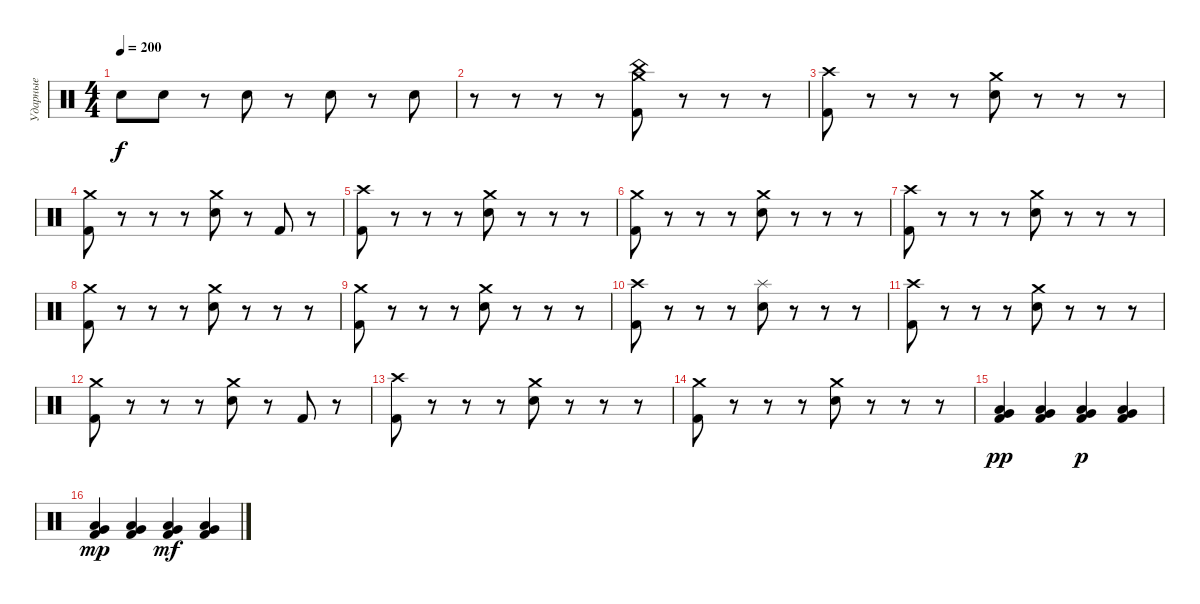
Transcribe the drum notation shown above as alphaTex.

\track ("Ударные" "Ударные") {instrument percussion}
\staff {score}
\articulation defaults
\ts (4 4)
\tempo 200
\clef neutral
\ks c "Electric Snare (hit)".8{dy f} "Electric Snare (hit)".8
r.8 "Electric Snare (hit)".8 r.8 "Electric Snare (hit)".8 r.8 "Electric Snare (hit)".8 |
r.8 r.8 r.8 r.8 ("Kick (hit) 2" "China (hit)" "Crash medium (hit)").8 r.8 r.8 r.8 |
("Kick (hit) 2" "Crash high (hit)").8 r.8 r.8 r.8 ("Electric Snare (hit)" "Crash medium (hit)").8 r.8 r.8 r.8 |
("Kick (hit) 2" "Crash medium (hit)").8 r.8 r.8 r.8 ("Electric Snare (hit)" "Crash medium (hit)").8 r.8 "Kick (hit) 2".8 r.8 |
("Kick (hit) 2" "Crash high (hit)").8 r.8 r.8 r.8 ("Electric Snare (hit)" "Crash medium (hit)").8 r.8 r.8 r.8 |
("Kick (hit) 2" "Crash medium (hit)").8 r.8 r.8 r.8 ("Electric Snare (hit)" "Crash medium (hit)").8 r.8 r.8 r.8 |
("Kick (hit) 2" "Crash high (hit)").8 r.8 r.8 r.8 ("Electric Snare (hit)" "Crash medium (hit)").8 r.8 r.8 r.8 |
("Kick (hit) 2" "Crash medium (hit)").8 r.8 r.8 r.8 ("Electric Snare (hit)" "Crash medium (hit)").8 r.8 r.8 r.8 |
("Kick (hit) 2" "Crash medium (hit)").8 r.8 r.8 r.8 ("Electric Snare (hit)" "Crash medium (hit)").8 r.8 r.8 r.8 |
("Kick (hit) 2" "Crash high (hit)").8 r.8 r.8 r.8 ("Electric Snare (hit)" "Splash (hit)").8 r.8 r.8 r.8 |
("Kick (hit) 2" "Crash high (hit)").8 r.8 r.8 r.8 ("Electric Snare (hit)" "Crash medium (hit)").8 r.8 r.8 r.8 |
("Kick (hit) 2" "Crash medium (hit)").8 r.8 r.8 r.8 ("Electric Snare (hit)" "Crash medium (hit)").8 r.8 "Kick (hit) 2".8 r.8 |
("Kick (hit) 2" "Crash high (hit)").8 r.8 r.8 r.8 ("Electric Snare (hit)" "Crash medium (hit)").8 r.8 r.8 r.8 |
("Kick (hit) 2" "Crash medium (hit)").8 r.8 r.8 r.8 ("Electric Snare (hit)" "Crash medium (hit)").8 r.8 r.8 r.8 |
("Kick (hit) 2" "Low Floor Tom (hit)" "Very Low Tom (hit)").4{dy pp} ("Kick (hit) 2" "Low Floor Tom (hit)" "Very Low Tom (hit)").4 ("Kick (hit) 2" "Low Floor Tom (hit)" "Very Low Tom (hit)").4{dy p} ("Kick (hit) 2" "Low Floor Tom (hit)" "Very Low Tom (hit)").4 |
("Kick (hit) 2" "Low Floor Tom (hit)" "Very Low Tom (hit)").4{dy mp} ("Kick (hit) 2" "Low Floor Tom (hit)" "Very Low Tom (hit)").4 ("Kick (hit) 2" "Low Floor Tom (hit)" "Very Low Tom (hit)").4{dy mf} ("Kick (hit) 2" "Low Floor Tom (hit)" "Very Low Tom (hit)").4
